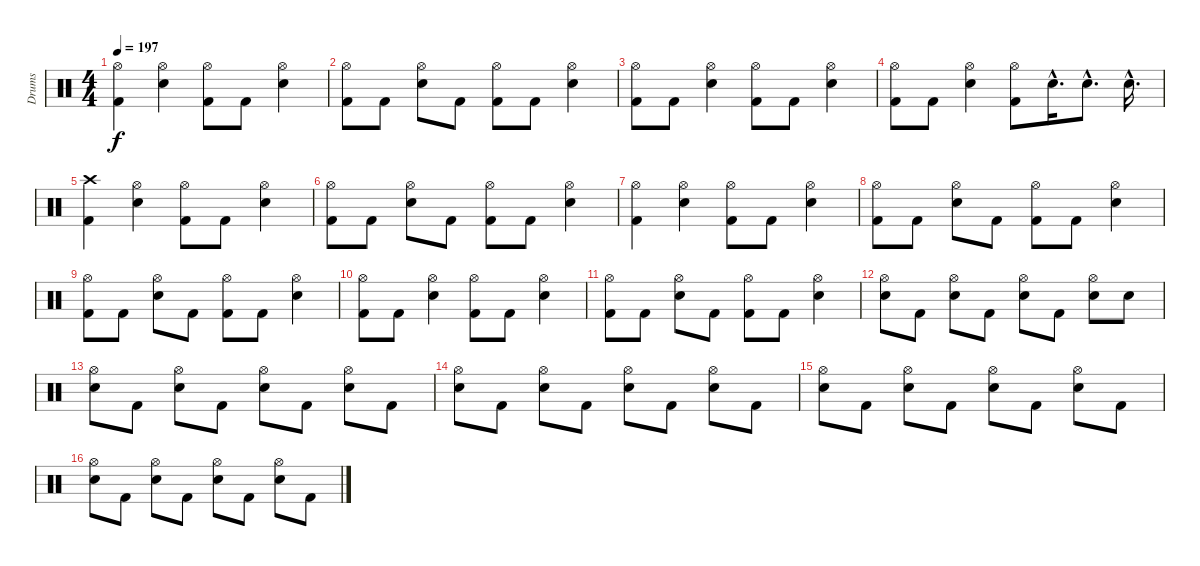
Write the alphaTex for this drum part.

\track ("Drums" "Drums") {instrument percussion}
\staff {score}
\articulation defaults
\ts (4 4)
\tempo 197
\clef neutral
\ks c
("Hi-Hat (open)" "Kick (hit) 2").4{dy f} ("Hi-Hat (open)" "Electric Snare (hit)").4 ("Hi-Hat (open)" "Kick (hit) 2").8 "Kick (hit) 2".8 ("Hi-Hat (open)" "Electric Snare (hit)").4 |
("Hi-Hat (open)" "Kick (hit) 2").8{volume 8} "Kick (hit) 2".8 ("Hi-Hat (open)" "Electric Snare (hit)").8 "Kick (hit) 2".8 ("Hi-Hat (open)" "Kick (hit) 2").8 "Kick (hit) 2".8 ("Hi-Hat (open)" "Electric Snare (hit)").4 |
("Hi-Hat (open)" "Kick (hit) 2").8 "Kick (hit) 2".8 ("Hi-Hat (open)" "Electric Snare (hit)").4 ("Hi-Hat (open)" "Kick (hit) 2").8 "Kick (hit) 2".8 ("Hi-Hat (open)" "Electric Snare (hit)").4 |
("Hi-Hat (open)" "Kick (hit) 2").8 "Kick (hit) 2".8 ("Hi-Hat (open)" "Electric Snare (hit)").4 ("Hi-Hat (open)" "Kick (hit) 2").8 "Electric Snare (hit)"{hac}.16{d} "Electric Snare (hit)"{hac}.8{d} "Electric Snare (hit)"{hac}.16{d} |
("Crash high (hit)" "Kick (hit) 2").4{volume 4} ("Hi-Hat (open)" "Electric Snare (hit)").4 ("Hi-Hat (open)" "Kick (hit) 2").8 "Kick (hit) 2".8 ("Hi-Hat (open)" "Electric Snare (hit)").4 |
("Hi-Hat (open)" "Kick (hit) 2").8 "Kick (hit) 2".8 ("Hi-Hat (open)" "Electric Snare (hit)").8 "Kick (hit) 2".8 ("Hi-Hat (open)" "Kick (hit) 2").8 "Kick (hit) 2".8 ("Hi-Hat (open)" "Electric Snare (hit)").4 |
("Hi-Hat (open)" "Kick (hit) 2").4 ("Hi-Hat (open)" "Electric Snare (hit)").4 ("Hi-Hat (open)" "Kick (hit) 2").8 "Kick (hit) 2".8 ("Hi-Hat (open)" "Electric Snare (hit)").4 |
("Hi-Hat (open)" "Kick (hit) 2").8 "Kick (hit) 2".8 ("Hi-Hat (open)" "Electric Snare (hit)").8 "Kick (hit) 2".8 ("Hi-Hat (open)" "Kick (hit) 2").8 "Kick (hit) 2".8 ("Hi-Hat (open)" "Electric Snare (hit)").4 |
("Hi-Hat (open)" "Kick (hit) 2").8 "Kick (hit) 2".8 ("Hi-Hat (open)" "Electric Snare (hit)").8 "Kick (hit) 2".8 ("Hi-Hat (open)" "Kick (hit) 2").8 "Kick (hit) 2".8 ("Hi-Hat (open)" "Electric Snare (hit)").4 |
("Hi-Hat (open)" "Kick (hit) 2").8 "Kick (hit) 2".8 ("Hi-Hat (open)" "Electric Snare (hit)").4 ("Hi-Hat (open)" "Kick (hit) 2").8 "Kick (hit) 2".8 ("Hi-Hat (open)" "Electric Snare (hit)").4 |
("Hi-Hat (open)" "Kick (hit) 2").8 "Kick (hit) 2".8 ("Hi-Hat (open)" "Electric Snare (hit)").8 "Kick (hit) 2".8 ("Hi-Hat (open)" "Kick (hit) 2").8 "Kick (hit) 2".8 ("Hi-Hat (open)" "Electric Snare (hit)").4 |
("Hi-Hat (open)" "Electric Snare (hit)").8 "Kick (hit) 2".8 ("Hi-Hat (open)" "Electric Snare (hit)").8 "Kick (hit) 2".8 ("Hi-Hat (open)" "Electric Snare (hit)").8 "Kick (hit) 2".8 ("Hi-Hat (open)" "Electric Snare (hit)").8 "Electric Snare (hit)".8 |
("Hi-Hat (open)" "Electric Snare (hit)").8{volume 0} "Kick (hit) 2".8 ("Hi-Hat (open)" "Electric Snare (hit)").8 "Kick (hit) 2".8 ("Hi-Hat (open)" "Electric Snare (hit)").8 "Kick (hit) 2".8 ("Hi-Hat (open)" "Electric Snare (hit)").8 "Kick (hit) 2".8 |
("Hi-Hat (open)" "Electric Snare (hit)").8 "Kick (hit) 2".8 ("Hi-Hat (open)" "Electric Snare (hit)").8 "Kick (hit) 2".8 ("Hi-Hat (open)" "Electric Snare (hit)").8 "Kick (hit) 2".8 ("Hi-Hat (open)" "Electric Snare (hit)").8 "Kick (hit) 2".8 |
("Hi-Hat (open)" "Electric Snare (hit)").8 "Kick (hit) 2".8 ("Hi-Hat (open)" "Electric Snare (hit)").8 "Kick (hit) 2".8 ("Hi-Hat (open)" "Electric Snare (hit)").8 "Kick (hit) 2".8 ("Hi-Hat (open)" "Electric Snare (hit)").8 "Kick (hit) 2".8 |
("Hi-Hat (open)" "Electric Snare (hit)").8 "Kick (hit) 2".8 ("Hi-Hat (open)" "Electric Snare (hit)").8 "Kick (hit) 2".8 ("Hi-Hat (open)" "Electric Snare (hit)").8 "Kick (hit) 2".8 ("Hi-Hat (open)" "Electric Snare (hit)").8 "Kick (hit) 2".8
